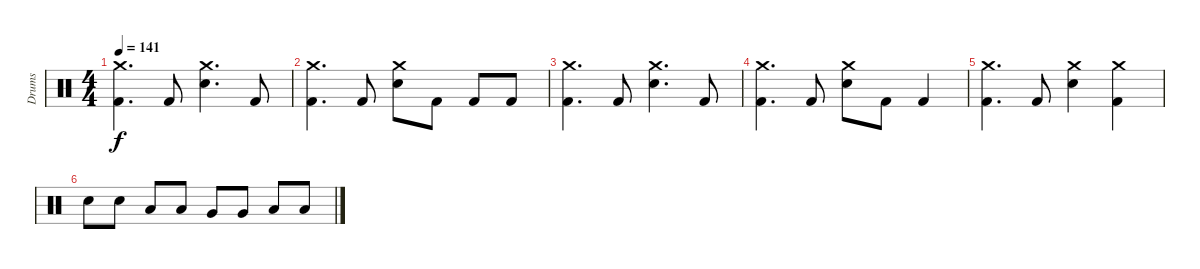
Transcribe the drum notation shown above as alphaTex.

\track ("Drums" "Drums") {instrument percussion}
\staff {score}
\articulation defaults
\ts (4 4)
\tempo 141
\clef neutral
\ks c
("Kick (hit) 2" "Crash medium (hit)").4{d dy f} "Kick (hit) 2".8 ("Snare (hit) 2" "Crash medium (hit)").4{d} "Kick (hit) 2".8 |
("Kick (hit) 2" "Crash medium (hit)").4{d} "Kick (hit) 2".8 ("Snare (hit) 2" "Crash medium (hit)").8 "Kick (hit) 2".8 "Kick (hit) 2".8 "Kick (hit) 2".8 |
("Kick (hit) 2" "Crash medium (hit)").4{d} "Kick (hit) 2".8 ("Snare (hit) 2" "Crash medium (hit)").4{d} "Kick (hit) 2".8 |
("Kick (hit) 2" "Crash medium (hit)").4{d} "Kick (hit) 2".8 ("Snare (hit) 2" "Crash medium (hit)").8 "Kick (hit) 2".8 "Kick (hit) 2".4 |
("Kick (hit) 2" "Crash medium (hit)").4{d} "Kick (hit) 2".8 ("Snare (hit) 2" "Crash medium (hit)").4 ("Kick (hit) 2" "Crash medium (hit)").4 |
"Snare (hit) 2".8 "Snare (hit) 2".8 "Low Tom (hit)".8 "Low Tom (hit)".8 "Very Low Tom (hit)".8 "Very Low Tom (hit)".8 "Low Floor Tom (hit)".8 "Low Floor Tom (hit)".8
